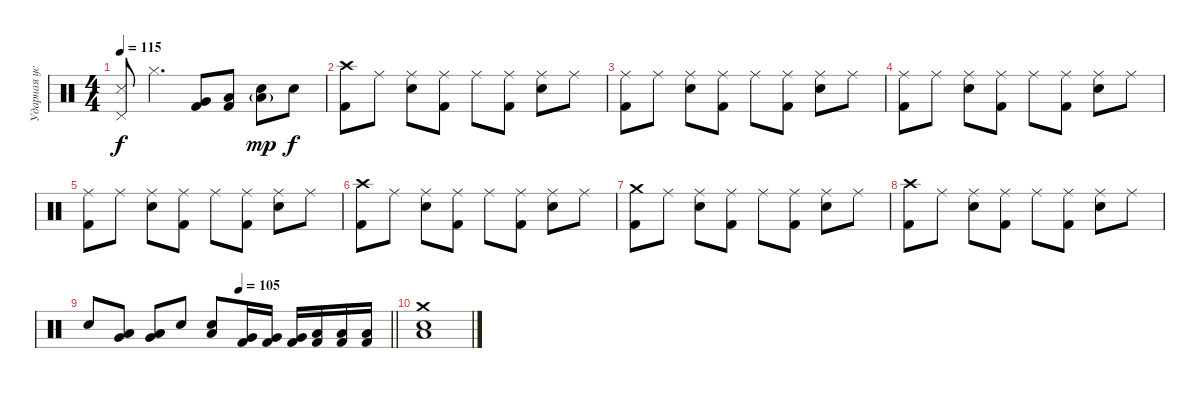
\track ("Ударная установка" "Ударная ус") {instrument percussion}
\staff {score}
\articulation defaults
\ts (4 4)
\tempo 115
\clef neutral
\ks c
("Pedal Hi-Hat (hit)" "Snare (side stick) 3").8{dy f} "Hi-Hat (closed)".4{d} ("Very Low Tom (hit)" "Kick (hit) 2").8 ("Low Floor Tom (hit)" "Kick (hit) 2").8 ("Electric Snare (hit)" "Low Floor Tom (hit)"{g}).8{dy mp} "Electric Snare (hit)".8{dy f} |
("Crash high (hit)" "Kick (hit) 2").8 "Ride (middle)".8 ("Ride (middle)" "Electric Snare (hit)").8 ("Ride (middle)" "Kick (hit) 2").8 "Ride (middle)".8 ("Ride (middle)" "Kick (hit) 2").8 ("Ride (middle)" "Electric Snare (hit)").8 "Ride (middle)".8 |
("Ride (middle)" "Kick (hit) 2").8 "Ride (middle)".8 ("Ride (middle)" "Electric Snare (hit)").8 ("Ride (middle)" "Kick (hit) 2").8 "Ride (middle)".8 ("Ride (middle)" "Kick (hit) 2").8 ("Ride (middle)" "Electric Snare (hit)").8 "Ride (middle)".8 |
("Ride (middle)" "Kick (hit) 2").8 "Ride (middle)".8 ("Ride (middle)" "Electric Snare (hit)").8 ("Ride (middle)" "Kick (hit) 2").8 "Ride (middle)".8 ("Ride (middle)" "Kick (hit) 2").8 ("Ride (middle)" "Electric Snare (hit)").8 "Ride (middle)".8 |
("Ride (middle)" "Kick (hit) 2").8 "Ride (middle)".8 ("Ride (middle)" "Electric Snare (hit)").8 ("Ride (middle)" "Kick (hit) 2").8 "Ride (middle)".8 ("Ride (middle)" "Kick (hit) 2").8 ("Ride (middle)" "Electric Snare (hit)").8 "Ride (middle)".8 |
("Crash high (hit)" "Kick (hit) 2").8 "Ride (middle)".8 ("Ride (middle)" "Electric Snare (hit)").8 ("Ride (middle)" "Kick (hit) 2").8 "Ride (middle)".8 ("Ride (middle)" "Kick (hit) 2").8 ("Ride (middle)" "Electric Snare (hit)").8 "Ride (middle)".8 |
("Crash medium (hit)" "Kick (hit) 2").8 "Ride (middle)".8 ("Ride (middle)" "Electric Snare (hit)").8 ("Ride (middle)" "Kick (hit) 2").8 "Ride (middle)".8 ("Ride (middle)" "Kick (hit) 2").8 ("Ride (middle)" "Electric Snare (hit)").8 "Ride (middle)".8 |
("Crash high (hit)" "Kick (hit) 2").8 "Ride (middle)".8 ("Ride (middle)" "Electric Snare (hit)").8 ("Ride (middle)" "Kick (hit) 2").8 "Ride (middle)".8 ("Ride (middle)" "Kick (hit) 2").8 ("Ride (middle)" "Electric Snare (hit)").8 "Ride (middle)".8 |
\tempo (105 0.5)
\barLineRight lightlight "Electric Snare (hit)".8
("Very Low Tom (hit)" "Low Floor Tom (hit)").8 ("Very Low Tom (hit)" "Low Floor Tom (hit)").8 "Electric Snare (hit)".8 ("Electric Snare (hit)" "Low Floor Tom (hit)").8 ("Kick (hit) 2" "Very Low Tom (hit)").16 ("Kick (hit) 2" "Very Low Tom (hit)").16 ("Kick (hit) 2" "Very Low Tom (hit)").16 ("Kick (hit) 2" "Low Tom (hit)").16 ("Kick (hit) 2" "Low Tom (hit)").16 ("Kick (hit) 2" "Low Floor Tom (hit)").16 |
("Crash medium (hit)" "Low Tom (hit)" "Snare (hit) 2").1
